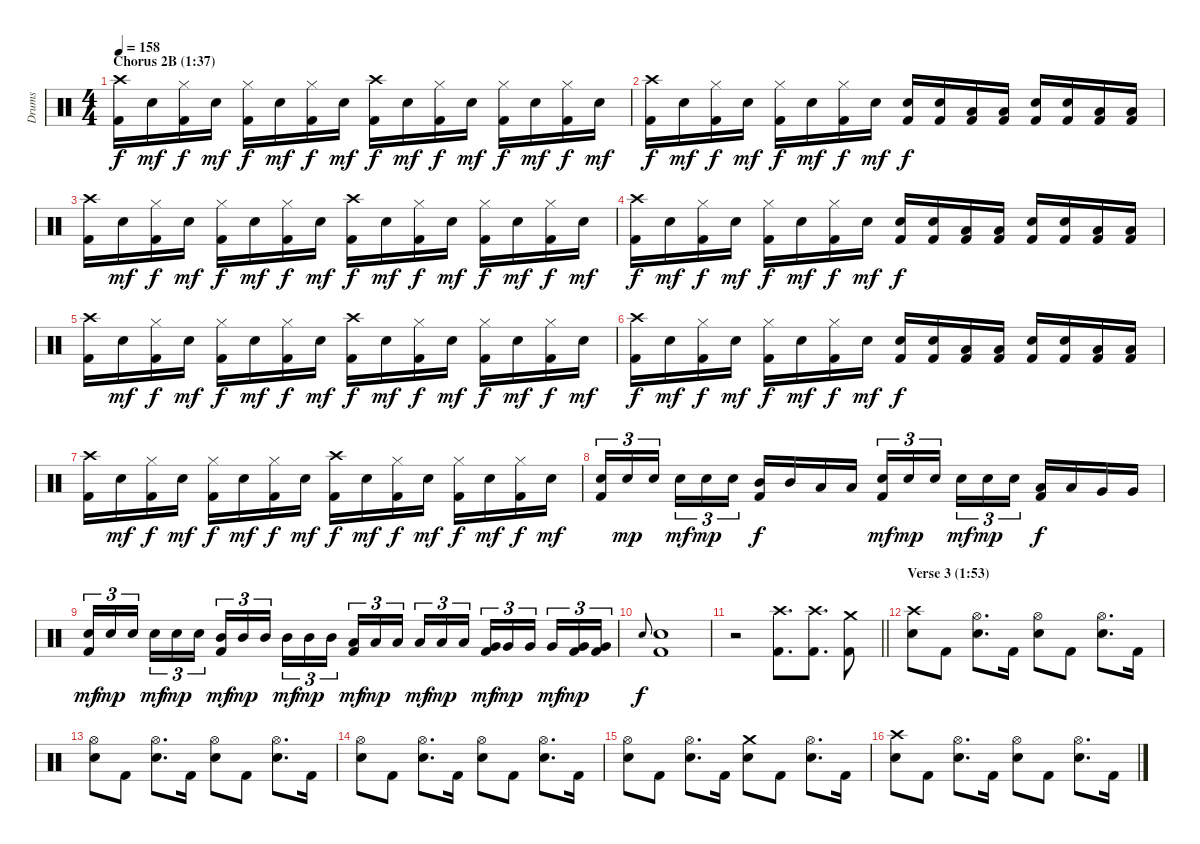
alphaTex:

\track ("Drums" "Drums") {instrument percussion}
\staff {score}
\articulation defaults
\ts (4 4)
\section ("" "Chorus 2B (1:37)")
\tempo 158
\clef neutral
\ks c
("Crash high (hit)" "Kick (hit) 2").16{dy f} "Electric Snare (hit)".16{dy mf} ("Hi-Hat (closed)" "Kick (hit) 2").16{dy f} "Electric Snare (hit)".16{dy mf} ("Hi-Hat (closed)" "Kick (hit) 2").16{dy f} "Electric Snare (hit)".16{dy mf} ("Hi-Hat (closed)" "Kick (hit) 2").16{dy f} "Electric Snare (hit)".16{dy mf} ("Crash high (hit)" "Kick (hit) 2").16{dy f} "Electric Snare (hit)".16{dy mf} ("Hi-Hat (closed)" "Kick (hit) 2").16{dy f} "Electric Snare (hit)".16{dy mf} ("Hi-Hat (closed)" "Kick (hit) 2").16{dy f} "Electric Snare (hit)".16{dy mf} ("Hi-Hat (closed)" "Kick (hit) 2").16{dy f} "Electric Snare (hit)".16{dy mf} |
("Crash high (hit)" "Kick (hit) 2").16{dy f} "Electric Snare (hit)".16{dy mf} ("Hi-Hat (closed)" "Kick (hit) 2").16{dy f} "Electric Snare (hit)".16{dy mf} ("Hi-Hat (closed)" "Kick (hit) 2").16{dy f} "Electric Snare (hit)".16{dy mf} ("Hi-Hat (closed)" "Kick (hit) 2").16{dy f} "Electric Snare (hit)".16{dy mf} ("Electric Snare (hit)" "Kick (hit) 2").16{dy f} ("Electric Snare (hit)" "Kick (hit) 2").16 ("Low Tom (hit)" "Kick (hit) 2").16 ("Low Tom (hit)" "Kick (hit) 2").16 ("Electric Snare (hit)" "Kick (hit) 2").16 ("Electric Snare (hit)" "Kick (hit) 2").16 ("Low Tom (hit)" "Kick (hit) 2").16 ("Low Tom (hit)" "Kick (hit) 2").16 |
("Crash high (hit)" "Kick (hit) 2").16 "Electric Snare (hit)".16{dy mf} ("Hi-Hat (closed)" "Kick (hit) 2").16{dy f} "Electric Snare (hit)".16{dy mf} ("Hi-Hat (closed)" "Kick (hit) 2").16{dy f} "Electric Snare (hit)".16{dy mf} ("Hi-Hat (closed)" "Kick (hit) 2").16{dy f} "Electric Snare (hit)".16{dy mf} ("Crash high (hit)" "Kick (hit) 2").16{dy f} "Electric Snare (hit)".16{dy mf} ("Hi-Hat (closed)" "Kick (hit) 2").16{dy f} "Electric Snare (hit)".16{dy mf} ("Hi-Hat (closed)" "Kick (hit) 2").16{dy f} "Electric Snare (hit)".16{dy mf} ("Hi-Hat (closed)" "Kick (hit) 2").16{dy f} "Electric Snare (hit)".16{dy mf} |
("Crash high (hit)" "Kick (hit) 2").16{dy f} "Electric Snare (hit)".16{dy mf} ("Hi-Hat (closed)" "Kick (hit) 2").16{dy f} "Electric Snare (hit)".16{dy mf} ("Hi-Hat (closed)" "Kick (hit) 2").16{dy f} "Electric Snare (hit)".16{dy mf} ("Hi-Hat (closed)" "Kick (hit) 2").16{dy f} "Electric Snare (hit)".16{dy mf} ("Electric Snare (hit)" "Kick (hit) 2").16{dy f} ("Electric Snare (hit)" "Kick (hit) 2").16 ("Low Tom (hit)" "Kick (hit) 2").16 ("Low Tom (hit)" "Kick (hit) 2").16 ("Electric Snare (hit)" "Kick (hit) 2").16 ("Electric Snare (hit)" "Kick (hit) 2").16 ("Low Tom (hit)" "Kick (hit) 2").16 ("Low Tom (hit)" "Kick (hit) 2").16 |
("Crash high (hit)" "Kick (hit) 2").16 "Electric Snare (hit)".16{dy mf} ("Hi-Hat (closed)" "Kick (hit) 2").16{dy f} "Electric Snare (hit)".16{dy mf} ("Hi-Hat (closed)" "Kick (hit) 2").16{dy f} "Electric Snare (hit)".16{dy mf} ("Hi-Hat (closed)" "Kick (hit) 2").16{dy f} "Electric Snare (hit)".16{dy mf} ("Crash high (hit)" "Kick (hit) 2").16{dy f} "Electric Snare (hit)".16{dy mf} ("Hi-Hat (closed)" "Kick (hit) 2").16{dy f} "Electric Snare (hit)".16{dy mf} ("Hi-Hat (closed)" "Kick (hit) 2").16{dy f} "Electric Snare (hit)".16{dy mf} ("Hi-Hat (closed)" "Kick (hit) 2").16{dy f} "Electric Snare (hit)".16{dy mf} |
("Crash high (hit)" "Kick (hit) 2").16{dy f} "Electric Snare (hit)".16{dy mf} ("Hi-Hat (closed)" "Kick (hit) 2").16{dy f} "Electric Snare (hit)".16{dy mf} ("Hi-Hat (closed)" "Kick (hit) 2").16{dy f} "Electric Snare (hit)".16{dy mf} ("Hi-Hat (closed)" "Kick (hit) 2").16{dy f} "Electric Snare (hit)".16{dy mf} ("Electric Snare (hit)" "Kick (hit) 2").16{dy f} ("Electric Snare (hit)" "Kick (hit) 2").16 ("Low Tom (hit)" "Kick (hit) 2").16 ("Low Tom (hit)" "Kick (hit) 2").16 ("Electric Snare (hit)" "Kick (hit) 2").16 ("Electric Snare (hit)" "Kick (hit) 2").16 ("Low Tom (hit)" "Kick (hit) 2").16 ("Low Tom (hit)" "Kick (hit) 2").16 |
("Crash high (hit)" "Kick (hit) 2").16 "Electric Snare (hit)".16{dy mf} ("Hi-Hat (closed)" "Kick (hit) 2").16{dy f} "Electric Snare (hit)".16{dy mf} ("Hi-Hat (closed)" "Kick (hit) 2").16{dy f} "Electric Snare (hit)".16{dy mf} ("Hi-Hat (closed)" "Kick (hit) 2").16{dy f} "Electric Snare (hit)".16{dy mf} ("Crash high (hit)" "Kick (hit) 2").16{dy f} "Electric Snare (hit)".16{dy mf} ("Hi-Hat (closed)" "Kick (hit) 2").16{dy f} "Electric Snare (hit)".16{dy mf} ("Hi-Hat (closed)" "Kick (hit) 2").16{dy f} "Electric Snare (hit)".16{dy mf} ("Hi-Hat (closed)" "Kick (hit) 2").16{dy f} "Electric Snare (hit)".16{dy mf} |
("Electric Snare (hit)" "Kick (hit) 2").16{tu (3 2)} "Electric Snare (hit)".16{tu (3 2) dy mp} "Electric Snare (hit)".16{tu (3 2) beam splitsecondary} "Electric Snare (hit)".16{tu (3 2) dy mf} "Electric Snare (hit)".16{tu (3 2) dy mp} "Electric Snare (hit)".16{tu (3 2)} ("Mid Tom (hit)" "Kick (hit) 2").16{dy f} "Mid Tom (hit)".16 "Low Tom (hit)".16 "Low Tom (hit)".16 ("Electric Snare (hit)" "Kick (hit) 2").16{tu (3 2) dy mf} "Electric Snare (hit)".16{tu (3 2) dy mp} "Electric Snare (hit)".16{tu (3 2) beam splitsecondary} "Electric Snare (hit)".16{tu (3 2) dy mf} "Electric Snare (hit)".16{tu (3 2) dy mp} "Electric Snare (hit)".16{tu (3 2)} ("Low Tom (hit)" "Kick (hit) 2").16{dy f} "Low Tom (hit)".16 "Very Low Tom (hit)".16 "Very Low Tom (hit)".16 |
("Electric Snare (hit)" "Kick (hit) 2").16{tu (3 2) dy mf} "Electric Snare (hit)".16{tu (3 2) dy mp} "Electric Snare (hit)".16{tu (3 2) beam splitsecondary} "Electric Snare (hit)".16{tu (3 2) dy mf} "Electric Snare (hit)".16{tu (3 2) dy mp} "Electric Snare (hit)".16{tu (3 2)} ("Mid Tom (hit)" "Kick (hit) 2").16{tu (3 2) dy mf} "Mid Tom (hit)".16{tu (3 2) dy mp} "Mid Tom (hit)".16{tu (3 2) beam splitsecondary} "Mid Tom (hit)".16{tu (3 2) dy mf} "Mid Tom (hit)".16{tu (3 2) dy mp} "Mid Tom (hit)".16{tu (3 2)} ("Low Tom (hit)" "Kick (hit) 2").16{tu (3 2) dy mf} "Low Tom (hit)".16{tu (3 2) dy mp} "Low Tom (hit)".16{tu (3 2) beam splitsecondary} "Low Tom (hit)".16{tu (3 2) dy mf} "Low Tom (hit)".16{tu (3 2) dy mp} "Low Tom (hit)".16{tu (3 2)} ("Very Low Tom (hit)" "Kick (hit) 2").16{tu (3 2) dy mf} "Very Low Tom (hit)".16{tu (3 2) dy mp} "Very Low Tom (hit)".16{tu (3 2) beam splitsecondary} "Very Low Tom (hit)".16{tu (3 2) dy mf} ("Very Low Tom (hit)" "Kick (hit) 2").16{tu (3 2) dy mp} ("Very Low Tom (hit)" "Kick (hit) 2").16{tu (3 2)} |
"Electric Snare (hit)".8{gr onbeat dy f} ("Electric Snare (hit)" "Kick (hit) 2").1 |
\barLineRight lightlight
r.2 ("Crash high (hit)" "Kick (hit) 2").8{d} ("Crash high (hit)" "Kick (hit) 2").8{d} ("Crash medium (hit)" "Kick (hit) 2").8 |
\section ("" "Verse 3 (1:53)")
("Crash high (hit)" "Electric Snare (hit)").8 "Kick (hit) 2".8 ("Hi-Hat (open)" "Electric Snare (hit)").8{d} "Kick (hit) 2".16 ("Hi-Hat (open)" "Electric Snare (hit)").8 "Kick (hit) 2".8 ("Hi-Hat (open)" "Electric Snare (hit)").8{d} "Kick (hit) 2".16 |
("Hi-Hat (open)" "Electric Snare (hit)").8 "Kick (hit) 2".8 ("Hi-Hat (open)" "Electric Snare (hit)").8{d} "Kick (hit) 2".16 ("Hi-Hat (open)" "Electric Snare (hit)").8 "Kick (hit) 2".8 ("Hi-Hat (open)" "Electric Snare (hit)").8{d} "Kick (hit) 2".16 |
("Hi-Hat (open)" "Electric Snare (hit)").8 "Kick (hit) 2".8 ("Hi-Hat (open)" "Electric Snare (hit)").8{d} "Kick (hit) 2".16 ("Hi-Hat (open)" "Electric Snare (hit)").8 "Kick (hit) 2".8 ("Hi-Hat (open)" "Electric Snare (hit)").8{d} "Kick (hit) 2".16 |
("Hi-Hat (open)" "Electric Snare (hit)").8 "Kick (hit) 2".8 ("Hi-Hat (open)" "Electric Snare (hit)").8{d} "Kick (hit) 2".16 ("Crash medium (hit)" "Electric Snare (hit)").8 "Kick (hit) 2".8 ("Hi-Hat (open)" "Electric Snare (hit)").8{d} "Kick (hit) 2".16 |
("Crash high (hit)" "Electric Snare (hit)").8 "Kick (hit) 2".8 ("Hi-Hat (open)" "Electric Snare (hit)").8{d} "Kick (hit) 2".16 ("Hi-Hat (open)" "Electric Snare (hit)").8 "Kick (hit) 2".8 ("Hi-Hat (open)" "Electric Snare (hit)").8{d} "Kick (hit) 2".16
